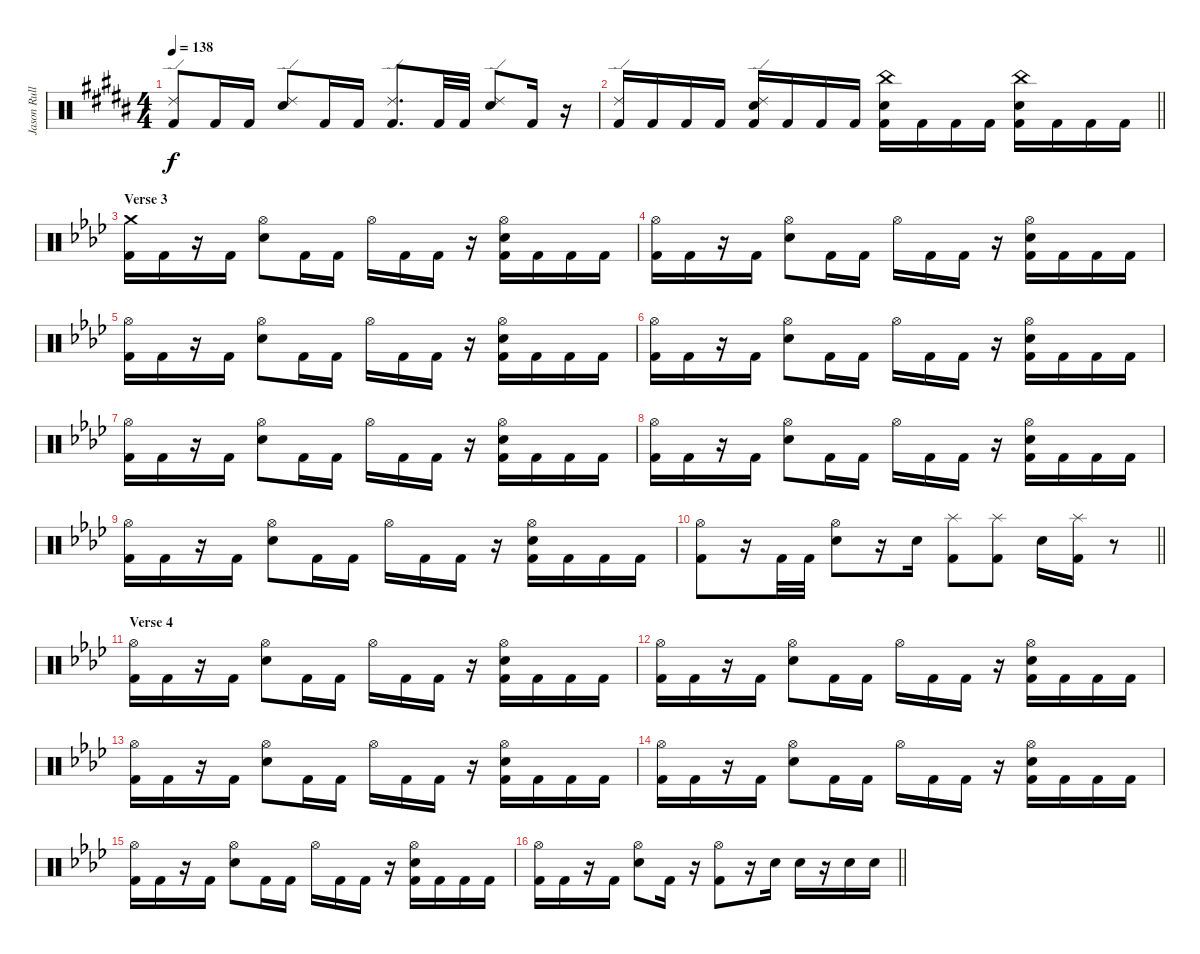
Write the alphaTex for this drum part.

\track ("Jason Rullo (drums)" "Jason Rull") {instrument percussion}
\staff {score}
\articulation defaults
\ts (4 4)
\tempo 138
\clef neutral
\ks g#minor
("Ride (edge) 2" "Kick (hit) 2").8{dy f} "Kick (hit) 2".16 "Kick (hit) 2".16 ("Ride (edge) 2" "Electric Snare (hit)").8 "Kick (hit) 2".16 "Kick (hit) 2".16 ("Ride (edge) 2" "Kick (hit) 2").8{d} "Kick (hit) 2".32 "Kick (hit) 2".32 ("Ride (edge) 2" "Electric Snare (hit)").8 "Kick (hit) 2".16 r.16 |
\barLineRight lightlight
("Ride (edge) 2" "Kick (hit) 2").16 "Kick (hit) 2".16 "Kick (hit) 2".16 "Kick (hit) 2".16 ("Kick (hit) 2" "Ride (edge) 2" "Electric Snare (hit)").16 "Kick (hit) 2".16 "Kick (hit) 2".16 "Kick (hit) 2".16 ("China (hit)" "Electric Snare (hit)" "Kick (hit) 2").16 "Kick (hit) 2".16 "Kick (hit) 2".16 "Kick (hit) 2".16 ("China (hit)" "Kick (hit) 2" "Electric Snare (hit)").16 "Kick (hit) 2".16 "Kick (hit) 2".16 "Kick (hit) 2".16 |
\section ("" "Verse 3")
\ks fminor
("Crash medium (hit)" "Kick (hit) 2").16{volume 15 balance 8} "Kick (hit) 2".16 r.16 "Kick (hit) 2".16 ("Hi-Hat (open)" "Electric Snare (hit)").8 "Kick (hit) 2".16 "Kick (hit) 2".16 "Hi-Hat (open)".16 "Kick (hit) 2".16 "Kick (hit) 2".16 r.16 ("Hi-Hat (open)" "Kick (hit) 2" "Electric Snare (hit)").16 "Kick (hit) 2".16 "Kick (hit) 2".16 "Kick (hit) 2".16 |
("Hi-Hat (open)" "Kick (hit) 2").16 "Kick (hit) 2".16 r.16 "Kick (hit) 2".16 ("Hi-Hat (open)" "Electric Snare (hit)").8 "Kick (hit) 2".16 "Kick (hit) 2".16 "Hi-Hat (open)".16 "Kick (hit) 2".16 "Kick (hit) 2".16 r.16 ("Hi-Hat (open)" "Kick (hit) 2" "Electric Snare (hit)").16 "Kick (hit) 2".16 "Kick (hit) 2".16 "Kick (hit) 2".16 |
("Hi-Hat (open)" "Kick (hit) 2").16 "Kick (hit) 2".16 r.16 "Kick (hit) 2".16 ("Hi-Hat (open)" "Electric Snare (hit)").8 "Kick (hit) 2".16 "Kick (hit) 2".16 "Hi-Hat (open)".16 "Kick (hit) 2".16 "Kick (hit) 2".16 r.16 ("Hi-Hat (open)" "Kick (hit) 2" "Electric Snare (hit)").16 "Kick (hit) 2".16 "Kick (hit) 2".16 "Kick (hit) 2".16 |
("Hi-Hat (open)" "Kick (hit) 2").16 "Kick (hit) 2".16 r.16 "Kick (hit) 2".16 ("Hi-Hat (open)" "Electric Snare (hit)").8 "Kick (hit) 2".16 "Kick (hit) 2".16 "Hi-Hat (open)".16 "Kick (hit) 2".16 "Kick (hit) 2".16 r.16 ("Hi-Hat (open)" "Kick (hit) 2" "Electric Snare (hit)").16 "Kick (hit) 2".16 "Kick (hit) 2".16 "Kick (hit) 2".16 |
("Hi-Hat (open)" "Kick (hit) 2").16 "Kick (hit) 2".16 r.16 "Kick (hit) 2".16 ("Hi-Hat (open)" "Electric Snare (hit)").8 "Kick (hit) 2".16 "Kick (hit) 2".16 "Hi-Hat (open)".16 "Kick (hit) 2".16 "Kick (hit) 2".16 r.16 ("Hi-Hat (open)" "Kick (hit) 2" "Electric Snare (hit)").16 "Kick (hit) 2".16 "Kick (hit) 2".16 "Kick (hit) 2".16 |
("Hi-Hat (open)" "Kick (hit) 2").16 "Kick (hit) 2".16 r.16 "Kick (hit) 2".16 ("Hi-Hat (open)" "Electric Snare (hit)").8 "Kick (hit) 2".16 "Kick (hit) 2".16 "Hi-Hat (open)".16 "Kick (hit) 2".16 "Kick (hit) 2".16 r.16 ("Hi-Hat (open)" "Kick (hit) 2" "Electric Snare (hit)").16 "Kick (hit) 2".16 "Kick (hit) 2".16 "Kick (hit) 2".16 |
("Hi-Hat (open)" "Kick (hit) 2").16 "Kick (hit) 2".16 r.16 "Kick (hit) 2".16 ("Hi-Hat (open)" "Electric Snare (hit)").8 "Kick (hit) 2".16 "Kick (hit) 2".16 "Hi-Hat (open)".16 "Kick (hit) 2".16 "Kick (hit) 2".16 r.16 ("Hi-Hat (open)" "Kick (hit) 2" "Electric Snare (hit)").16 "Kick (hit) 2".16 "Kick (hit) 2".16 "Kick (hit) 2".16 |
\barLineRight lightlight
("Hi-Hat (open)" "Kick (hit) 2").8 r.16 "Kick (hit) 2".32 "Kick (hit) 2".32 ("Hi-Hat (open)" "Electric Snare (hit)").8 r.16 "Electric Snare (hit)".16 ("Splash (hit)" "Kick (hit) 2").8 ("Splash (hit)" "Kick (hit) 2").8 "Electric Snare (hit)".16 ("Splash (hit)" "Kick (hit) 2").16 r.8 |
\section ("" "Verse 4")
("Hi-Hat (open)" "Kick (hit) 2").16 "Kick (hit) 2".16 r.16 "Kick (hit) 2".16 ("Hi-Hat (open)" "Electric Snare (hit)").8 "Kick (hit) 2".16 "Kick (hit) 2".16 "Hi-Hat (open)".16 "Kick (hit) 2".16 "Kick (hit) 2".16 r.16 ("Hi-Hat (open)" "Kick (hit) 2" "Electric Snare (hit)").16 "Kick (hit) 2".16 "Kick (hit) 2".16 "Kick (hit) 2".16 |
("Hi-Hat (open)" "Kick (hit) 2").16 "Kick (hit) 2".16 r.16 "Kick (hit) 2".16 ("Hi-Hat (open)" "Electric Snare (hit)").8 "Kick (hit) 2".16 "Kick (hit) 2".16 "Hi-Hat (open)".16 "Kick (hit) 2".16 "Kick (hit) 2".16 r.16 ("Hi-Hat (open)" "Kick (hit) 2" "Electric Snare (hit)").16 "Kick (hit) 2".16 "Kick (hit) 2".16 "Kick (hit) 2".16 |
("Hi-Hat (open)" "Kick (hit) 2").16 "Kick (hit) 2".16 r.16 "Kick (hit) 2".16 ("Hi-Hat (open)" "Electric Snare (hit)").8 "Kick (hit) 2".16 "Kick (hit) 2".16 "Hi-Hat (open)".16 "Kick (hit) 2".16 "Kick (hit) 2".16 r.16 ("Hi-Hat (open)" "Kick (hit) 2" "Electric Snare (hit)").16 "Kick (hit) 2".16 "Kick (hit) 2".16 "Kick (hit) 2".16 |
("Hi-Hat (open)" "Kick (hit) 2").16 "Kick (hit) 2".16 r.16 "Kick (hit) 2".16 ("Hi-Hat (open)" "Electric Snare (hit)").8 "Kick (hit) 2".16 "Kick (hit) 2".16 "Hi-Hat (open)".16 "Kick (hit) 2".16 "Kick (hit) 2".16 r.16 ("Hi-Hat (open)" "Kick (hit) 2" "Electric Snare (hit)").16 "Kick (hit) 2".16 "Kick (hit) 2".16 "Kick (hit) 2".16 |
("Hi-Hat (open)" "Kick (hit) 2").16 "Kick (hit) 2".16 r.16 "Kick (hit) 2".16 ("Hi-Hat (open)" "Electric Snare (hit)").8 "Kick (hit) 2".16 "Kick (hit) 2".16 "Hi-Hat (open)".16 "Kick (hit) 2".16 "Kick (hit) 2".16 r.16 ("Hi-Hat (open)" "Kick (hit) 2" "Electric Snare (hit)").16 "Kick (hit) 2".16 "Kick (hit) 2".16 "Kick (hit) 2".16 |
\barLineRight lightlight
("Hi-Hat (open)" "Kick (hit) 2").16 "Kick (hit) 2".16 r.16 "Kick (hit) 2".16 ("Hi-Hat (open)" "Electric Snare (hit)").8 "Kick (hit) 2".16 r.16 ("Kick (hit) 2" "Hi-Hat (open)").8 r.16 "Electric Snare (hit)".16 "Electric Snare (hit)".16 r.16 "Electric Snare (hit)".16 "Electric Snare (hit)".16
